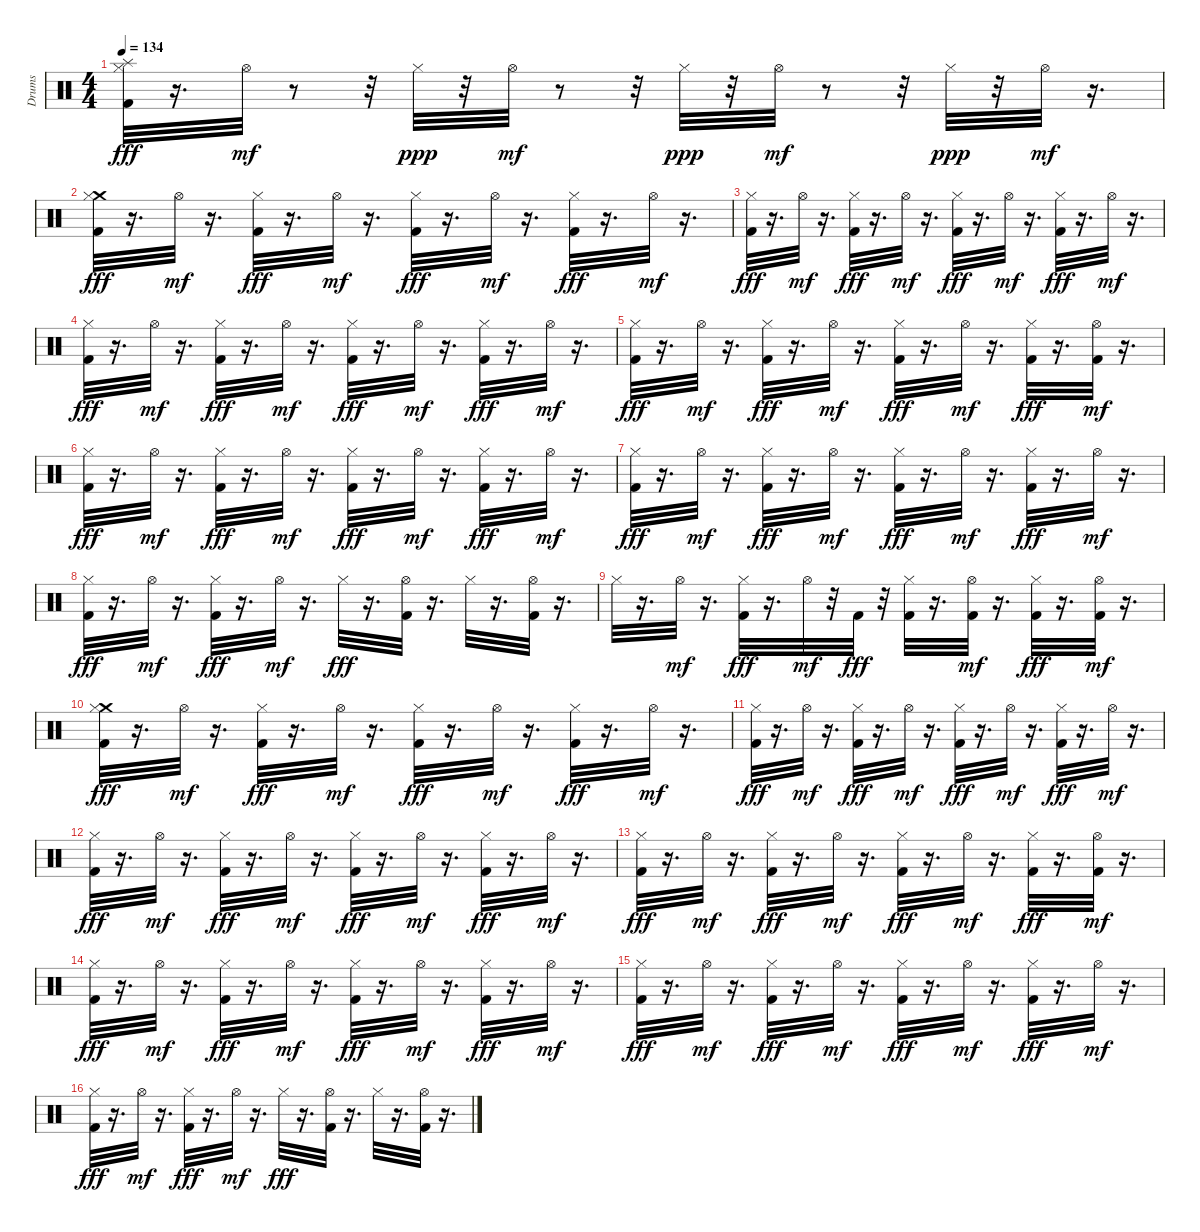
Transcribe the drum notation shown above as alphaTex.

\track ("Drums" "Drums") {instrument percussion}
\staff {score}
\articulation defaults
\ts (4 4)
\tempo 134
\clef neutral
\ks c
("Kick (hit) 2" "Hi-Hat (closed)" "Splash (hit)").32{dy fff} r.16{d} "Hi-Hat (open)".32{dy mf} r.8 r.32 "Hi-Hat (closed)".32{dy ppp} r.32 "Hi-Hat (open)".32{dy mf} r.8 r.32 "Hi-Hat (closed)".32{dy ppp} r.32 "Hi-Hat (open)".32{dy mf} r.8 r.32 "Hi-Hat (closed)".32{dy ppp} r.32 "Hi-Hat (open)".32{dy mf} r.16{d} |
("Crash medium (hit)" "Kick (hit) 2" "Hi-Hat (closed)").32{dy fff} r.16{d} "Hi-Hat (open)".32{dy mf} r.16{d} ("Kick (hit) 2" "Hi-Hat (closed)").32{dy fff} r.16{d} "Hi-Hat (open)".32{dy mf} r.16{d} ("Kick (hit) 2" "Hi-Hat (closed)").32{dy fff} r.16{d} "Hi-Hat (open)".32{dy mf} r.16{d} ("Kick (hit) 2" "Hi-Hat (closed)").32{dy fff} r.16{d} "Hi-Hat (open)".32{dy mf} r.16{d} |
("Kick (hit) 2" "Hi-Hat (closed)").32{dy fff} r.16{d} "Hi-Hat (open)".32{dy mf} r.16{d} ("Kick (hit) 2" "Hi-Hat (closed)").32{dy fff} r.16{d} "Hi-Hat (open)".32{dy mf} r.16{d} ("Kick (hit) 2" "Hi-Hat (closed)").32{dy fff} r.16{d} "Hi-Hat (open)".32{dy mf} r.16{d} ("Kick (hit) 2" "Hi-Hat (closed)").32{dy fff} r.16{d} "Hi-Hat (open)".32{dy mf} r.16{d} |
("Kick (hit) 2" "Hi-Hat (closed)").32{dy fff} r.16{d} "Hi-Hat (open)".32{dy mf} r.16{d} ("Kick (hit) 2" "Hi-Hat (closed)").32{dy fff} r.16{d} "Hi-Hat (open)".32{dy mf} r.16{d} ("Kick (hit) 2" "Hi-Hat (closed)").32{dy fff} r.16{d} "Hi-Hat (open)".32{dy mf} r.16{d} ("Kick (hit) 2" "Hi-Hat (closed)").32{dy fff} r.16{d} "Hi-Hat (open)".32{dy mf} r.16{d} |
("Kick (hit) 2" "Hi-Hat (closed)").32{dy fff} r.16{d} "Hi-Hat (open)".32{dy mf} r.16{d} ("Kick (hit) 2" "Hi-Hat (closed)").32{dy fff} r.16{d} "Hi-Hat (open)".32{dy mf} r.16{d} ("Kick (hit) 2" "Hi-Hat (closed)").32{dy fff} r.16{d} "Hi-Hat (open)".32{dy mf} r.16{d} ("Kick (hit) 2" "Hi-Hat (closed)").32{dy fff} r.16{d} ("Kick (hit) 2" "Hi-Hat (open)").32{dy mf} r.16{d} |
("Kick (hit) 2" "Hi-Hat (closed)").32{dy fff} r.16{d} "Hi-Hat (open)".32{dy mf} r.16{d} ("Kick (hit) 2" "Hi-Hat (closed)").32{dy fff} r.16{d} "Hi-Hat (open)".32{dy mf} r.16{d} ("Kick (hit) 2" "Hi-Hat (closed)").32{dy fff} r.16{d} "Hi-Hat (open)".32{dy mf} r.16{d} ("Kick (hit) 2" "Hi-Hat (closed)").32{dy fff} r.16{d} "Hi-Hat (open)".32{dy mf} r.16{d} |
("Kick (hit) 2" "Hi-Hat (closed)").32{dy fff} r.16{d} "Hi-Hat (open)".32{dy mf} r.16{d} ("Kick (hit) 2" "Hi-Hat (closed)").32{dy fff} r.16{d} "Hi-Hat (open)".32{dy mf} r.16{d} ("Kick (hit) 2" "Hi-Hat (closed)").32{dy fff} r.16{d} "Hi-Hat (open)".32{dy mf} r.16{d} ("Kick (hit) 2" "Hi-Hat (closed)").32{dy fff} r.16{d} "Hi-Hat (open)".32{dy mf} r.16{d} |
("Kick (hit) 2" "Hi-Hat (closed)").32{dy fff} r.16{d} "Hi-Hat (open)".32{dy mf} r.16{d} ("Kick (hit) 2" "Hi-Hat (closed)").32{dy fff} r.16{d} "Hi-Hat (open)".32{dy mf} r.16{d} "Hi-Hat (closed)".32{dy fff} r.16{d} ("Hi-Hat (open)" "Kick (hit) 2").32 r.16{d} "Hi-Hat (closed)".32 r.16{d} ("Hi-Hat (open)" "Kick (hit) 2").32 r.16{d} |
"Hi-Hat (closed)".32 r.16{d} "Hi-Hat (open)".32{dy mf} r.16{d} ("Kick (hit) 2" "Hi-Hat (closed)").32{dy fff} r.16{d} "Hi-Hat (open)".32{dy mf} r.32 "Kick (hit) 2".32{dy fff} r.32 ("Kick (hit) 2" "Hi-Hat (closed)").32 r.16{d} ("Kick (hit) 2" "Hi-Hat (open)").32{dy mf} r.16{d} ("Kick (hit) 2" "Hi-Hat (closed)").32{dy fff} r.16{d} ("Kick (hit) 2" "Hi-Hat (open)").32{dy mf} r.16{d} |
("Crash medium (hit)" "Kick (hit) 2" "Hi-Hat (closed)").32{dy fff} r.16{d} "Hi-Hat (open)".32{dy mf} r.16{d} ("Kick (hit) 2" "Hi-Hat (closed)").32{dy fff} r.16{d} "Hi-Hat (open)".32{dy mf} r.16{d} ("Kick (hit) 2" "Hi-Hat (closed)").32{dy fff} r.16{d} "Hi-Hat (open)".32{dy mf} r.16{d} ("Kick (hit) 2" "Hi-Hat (closed)").32{dy fff} r.16{d} "Hi-Hat (open)".32{dy mf} r.16{d} |
("Kick (hit) 2" "Hi-Hat (closed)").32{dy fff} r.16{d} "Hi-Hat (open)".32{dy mf} r.16{d} ("Kick (hit) 2" "Hi-Hat (closed)").32{dy fff} r.16{d} "Hi-Hat (open)".32{dy mf} r.16{d} ("Kick (hit) 2" "Hi-Hat (closed)").32{dy fff} r.16{d} "Hi-Hat (open)".32{dy mf} r.16{d} ("Kick (hit) 2" "Hi-Hat (closed)").32{dy fff} r.16{d} "Hi-Hat (open)".32{dy mf} r.16{d} |
("Kick (hit) 2" "Hi-Hat (closed)").32{dy fff} r.16{d} "Hi-Hat (open)".32{dy mf} r.16{d} ("Kick (hit) 2" "Hi-Hat (closed)").32{dy fff} r.16{d} "Hi-Hat (open)".32{dy mf} r.16{d} ("Kick (hit) 2" "Hi-Hat (closed)").32{dy fff} r.16{d} "Hi-Hat (open)".32{dy mf} r.16{d} ("Kick (hit) 2" "Hi-Hat (closed)").32{dy fff} r.16{d} "Hi-Hat (open)".32{dy mf} r.16{d} |
("Kick (hit) 2" "Hi-Hat (closed)").32{dy fff} r.16{d} "Hi-Hat (open)".32{dy mf} r.16{d} ("Kick (hit) 2" "Hi-Hat (closed)").32{dy fff} r.16{d} "Hi-Hat (open)".32{dy mf} r.16{d} ("Kick (hit) 2" "Hi-Hat (closed)").32{dy fff} r.16{d} "Hi-Hat (open)".32{dy mf} r.16{d} ("Kick (hit) 2" "Hi-Hat (closed)").32{dy fff} r.16{d} ("Kick (hit) 2" "Hi-Hat (open)").32{dy mf} r.16{d} |
("Kick (hit) 2" "Hi-Hat (closed)").32{dy fff} r.16{d} "Hi-Hat (open)".32{dy mf} r.16{d} ("Kick (hit) 2" "Hi-Hat (closed)").32{dy fff} r.16{d} "Hi-Hat (open)".32{dy mf} r.16{d} ("Kick (hit) 2" "Hi-Hat (closed)").32{dy fff} r.16{d} "Hi-Hat (open)".32{dy mf} r.16{d} ("Kick (hit) 2" "Hi-Hat (closed)").32{dy fff} r.16{d} "Hi-Hat (open)".32{dy mf} r.16{d} |
("Kick (hit) 2" "Hi-Hat (closed)").32{dy fff} r.16{d} "Hi-Hat (open)".32{dy mf} r.16{d} ("Kick (hit) 2" "Hi-Hat (closed)").32{dy fff} r.16{d} "Hi-Hat (open)".32{dy mf} r.16{d} ("Kick (hit) 2" "Hi-Hat (closed)").32{dy fff} r.16{d} "Hi-Hat (open)".32{dy mf} r.16{d} ("Kick (hit) 2" "Hi-Hat (closed)").32{dy fff} r.16{d} "Hi-Hat (open)".32{dy mf} r.16{d} |
("Kick (hit) 2" "Hi-Hat (closed)").32{dy fff} r.16{d} "Hi-Hat (open)".32{dy mf} r.16{d} ("Hi-Hat (closed)" "Kick (hit) 2").32{dy fff} r.16{d} "Hi-Hat (open)".32{dy mf} r.16{d} "Hi-Hat (closed)".32{dy fff} r.16{d} ("Hi-Hat (open)" "Kick (hit) 2").32 r.16{d} "Hi-Hat (closed)".32 r.16{d} ("Hi-Hat (open)" "Kick (hit) 2").32 r.16{d}
